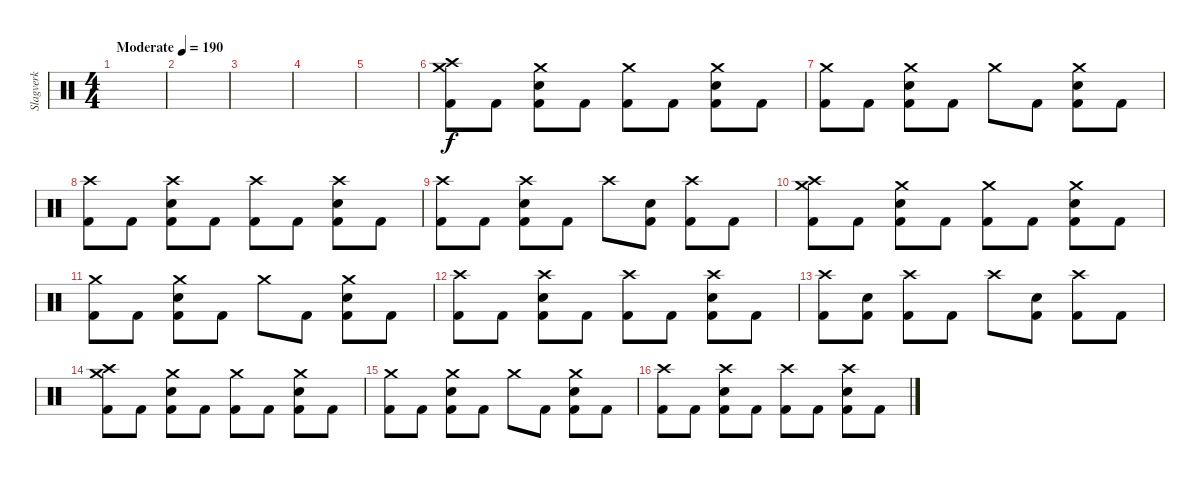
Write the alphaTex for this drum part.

\track ("Slagverk" "Slagverk") {instrument percussion}
\staff {score}
\articulation defaults
\ts (4 4)
\tempo (190 "Moderate")
\clef neutral
\ks c
|
|
|
|
|
("Crash medium (hit)" "Crash high (hit)" "Kick (hit) 2").8 "Kick (hit) 2".8 ("Crash medium (hit)" "Electric Snare (hit)" "Kick (hit) 2").8 "Kick (hit) 2".8 ("Crash medium (hit)" "Kick (hit) 2").8 "Kick (hit) 2".8 ("Crash medium (hit)" "Electric Snare (hit)" "Kick (hit) 2").8 "Kick (hit) 2".8 |
("Crash medium (hit)" "Kick (hit) 2").8 "Kick (hit) 2".8 ("Crash medium (hit)" "Electric Snare (hit)" "Kick (hit) 2").8 "Kick (hit) 2".8 "Crash medium (hit)".8 "Kick (hit) 2".8 ("Crash medium (hit)" "Electric Snare (hit)" "Kick (hit) 2").8 "Kick (hit) 2".8 |
("Crash high (hit)" "Kick (hit) 2").8 "Kick (hit) 2".8 ("Crash high (hit)" "Electric Snare (hit)" "Kick (hit) 2").8 "Kick (hit) 2".8 ("Crash high (hit)" "Kick (hit) 2").8 "Kick (hit) 2".8 ("Crash high (hit)" "Electric Snare (hit)" "Kick (hit) 2").8 "Kick (hit) 2".8 |
("Crash high (hit)" "Kick (hit) 2").8 "Kick (hit) 2".8 ("Crash high (hit)" "Electric Snare (hit)" "Kick (hit) 2").8 "Kick (hit) 2".8 "Crash high (hit)".8 ("Electric Snare (hit)" "Kick (hit) 2").8 ("Crash high (hit)" "Kick (hit) 2").8 "Kick (hit) 2".8 |
("Crash medium (hit)" "Crash high (hit)" "Kick (hit) 2").8 "Kick (hit) 2".8 ("Crash medium (hit)" "Electric Snare (hit)" "Kick (hit) 2").8 "Kick (hit) 2".8 ("Crash medium (hit)" "Kick (hit) 2").8 "Kick (hit) 2".8 ("Crash medium (hit)" "Electric Snare (hit)" "Kick (hit) 2").8 "Kick (hit) 2".8 |
("Crash medium (hit)" "Kick (hit) 2").8 "Kick (hit) 2".8 ("Crash medium (hit)" "Electric Snare (hit)" "Kick (hit) 2").8 "Kick (hit) 2".8 "Crash medium (hit)".8 "Kick (hit) 2".8 ("Crash medium (hit)" "Electric Snare (hit)" "Kick (hit) 2").8 "Kick (hit) 2".8 |
("Crash high (hit)" "Kick (hit) 2").8 "Kick (hit) 2".8 ("Crash high (hit)" "Electric Snare (hit)" "Kick (hit) 2").8 "Kick (hit) 2".8 ("Crash high (hit)" "Kick (hit) 2").8 "Kick (hit) 2".8 ("Crash high (hit)" "Electric Snare (hit)" "Kick (hit) 2").8 "Kick (hit) 2".8 |
("Crash high (hit)" "Kick (hit) 2").8 ("Electric Snare (hit)" "Kick (hit) 2").8 ("Crash high (hit)" "Kick (hit) 2").8 "Kick (hit) 2".8 "Crash high (hit)".8 ("Electric Snare (hit)" "Kick (hit) 2").8 ("Crash high (hit)" "Kick (hit) 2").8 "Kick (hit) 2".8 |
("Crash medium (hit)" "Crash high (hit)" "Kick (hit) 2").8 "Kick (hit) 2".8 ("Crash medium (hit)" "Electric Snare (hit)" "Kick (hit) 2").8 "Kick (hit) 2".8 ("Crash medium (hit)" "Kick (hit) 2").8 "Kick (hit) 2".8 ("Crash medium (hit)" "Electric Snare (hit)" "Kick (hit) 2").8 "Kick (hit) 2".8 |
("Crash medium (hit)" "Kick (hit) 2").8 "Kick (hit) 2".8 ("Crash medium (hit)" "Electric Snare (hit)" "Kick (hit) 2").8 "Kick (hit) 2".8 "Crash medium (hit)".8 "Kick (hit) 2".8 ("Crash medium (hit)" "Electric Snare (hit)" "Kick (hit) 2").8 "Kick (hit) 2".8 |
("Crash high (hit)" "Kick (hit) 2").8 "Kick (hit) 2".8 ("Crash high (hit)" "Electric Snare (hit)" "Kick (hit) 2").8 "Kick (hit) 2".8 ("Crash high (hit)" "Kick (hit) 2").8 "Kick (hit) 2".8 ("Crash high (hit)" "Electric Snare (hit)" "Kick (hit) 2").8 "Kick (hit) 2".8
